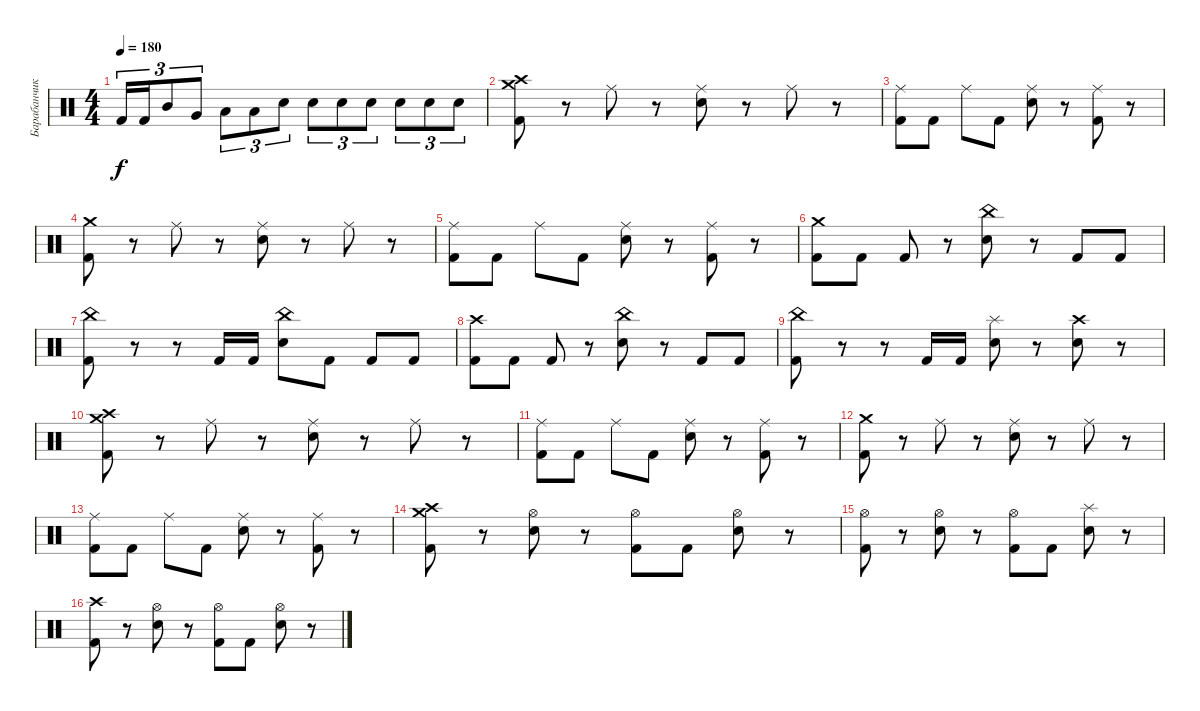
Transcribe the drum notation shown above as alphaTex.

\track ("Барабанчики" "Барабанчик") {instrument percussion}
\staff {score}
\articulation defaults
\ts (4 4)
\tempo 180
\clef neutral
\ks c "Kick (hit) 2".16{tu (3 2) dy f} "Kick (hit) 2".16{tu (3 2)} "Mid Tom (hit)".8{tu (3 2)} "Very Low Tom (hit)".8{tu (3 2)} "Low Tom (hit)".8{tu (3 2)} "Low Floor Tom (hit)".8{tu (3 2)} "Electric Snare (hit)".8{tu (3 2)} "Electric Snare (hit)".8{tu (3 2)} "Electric Snare (hit)".8{tu (3 2)} "Electric Snare (hit)".8{tu (3 2)} "Electric Snare (hit)".8{tu (3 2)} "Electric Snare (hit)".8{tu (3 2)} "Electric Snare (hit)".8{tu (3 2)}
|
("Kick (hit) 2" "Crash high (hit)" "Crash medium (hit)").8 r.8 "Ride (middle)".8 r.8 ("Electric Snare (hit)" "Ride (middle)").8 r.8 "Ride (middle)".8 r.8 |
("Kick (hit) 2" "Ride (middle)").8 "Kick (hit) 2".8 "Ride (middle)".8 "Kick (hit) 2".8 ("Electric Snare (hit)" "Ride (middle)").8 r.8 ("Kick (hit) 2" "Ride (middle)").8 r.8 |
("Kick (hit) 2" "Crash medium (hit)").8 r.8 "Ride (middle)".8 r.8 ("Electric Snare (hit)" "Ride (middle)").8 r.8 "Ride (middle)".8 r.8 |
("Kick (hit) 2" "Ride (middle)").8 "Kick (hit) 2".8 "Ride (middle)".8 "Kick (hit) 2".8 ("Electric Snare (hit)" "Ride (middle)").8 r.8 ("Kick (hit) 2" "Ride (middle)").8 r.8 |
("Kick (hit) 2" "Crash medium (hit)").8 "Kick (hit) 2".8 "Kick (hit) 2".8 r.8 ("Electric Snare (hit)" "China (hit)").8 r.8 "Kick (hit) 2".8 "Kick (hit) 2".8 |
("Kick (hit) 2" "China (hit)").8 r.8 r.8 "Kick (hit) 2".16 "Kick (hit) 2".16 ("Electric Snare (hit)" "China (hit)").8 "Kick (hit) 2".8 "Kick (hit) 2".8 "Kick (hit) 2".8 |
("Kick (hit) 2" "Crash high (hit)").8 "Kick (hit) 2".8 "Kick (hit) 2".8 r.8 ("Electric Snare (hit)" "China (hit)").8 r.8 "Kick (hit) 2".8 "Kick (hit) 2".8 |
("Kick (hit) 2" "China (hit)").8 r.8 r.8 "Kick (hit) 2".16 "Kick (hit) 2".16 ("Electric Snare (hit)" "Splash (hit)").8 r.8 ("Electric Snare (hit)" "Crash high (hit)").8 r.8 |
("Kick (hit) 2" "Crash high (hit)" "Crash medium (hit)").8 r.8 "Ride (middle)".8 r.8 ("Electric Snare (hit)" "Ride (middle)").8 r.8 "Ride (middle)".8 r.8 |
("Kick (hit) 2" "Ride (middle)").8 "Kick (hit) 2".8 "Ride (middle)".8 "Kick (hit) 2".8 ("Electric Snare (hit)" "Ride (middle)").8 r.8 ("Kick (hit) 2" "Ride (middle)").8 r.8 |
("Kick (hit) 2" "Crash medium (hit)").8 r.8 "Ride (middle)".8 r.8 ("Electric Snare (hit)" "Ride (middle)").8 r.8 "Ride (middle)".8 r.8 |
("Kick (hit) 2" "Ride (middle)").8 "Kick (hit) 2".8 "Ride (middle)".8 "Kick (hit) 2".8 ("Electric Snare (hit)" "Ride (middle)").8 r.8 ("Kick (hit) 2" "Ride (middle)").8 r.8 |
("Kick (hit) 2" "Crash high (hit)" "Crash medium (hit)").8 r.8 ("Electric Snare (hit)" "Hi-Hat (open)").8 r.8 ("Kick (hit) 2" "Hi-Hat (open)").8 "Kick (hit) 2".8 ("Electric Snare (hit)" "Hi-Hat (open)").8 r.8 |
("Kick (hit) 2" "Hi-Hat (open)").8 r.8 ("Electric Snare (hit)" "Hi-Hat (open)").8 r.8 ("Kick (hit) 2" "Hi-Hat (open)").8 "Kick (hit) 2".8 ("Electric Snare (hit)" "Splash (hit)").8 r.8 |
("Kick (hit) 2" "Crash high (hit)").8 r.8 ("Electric Snare (hit)" "Hi-Hat (open)").8 r.8 ("Kick (hit) 2" "Hi-Hat (open)").8 "Kick (hit) 2".8 ("Electric Snare (hit)" "Hi-Hat (open)").8 r.8
